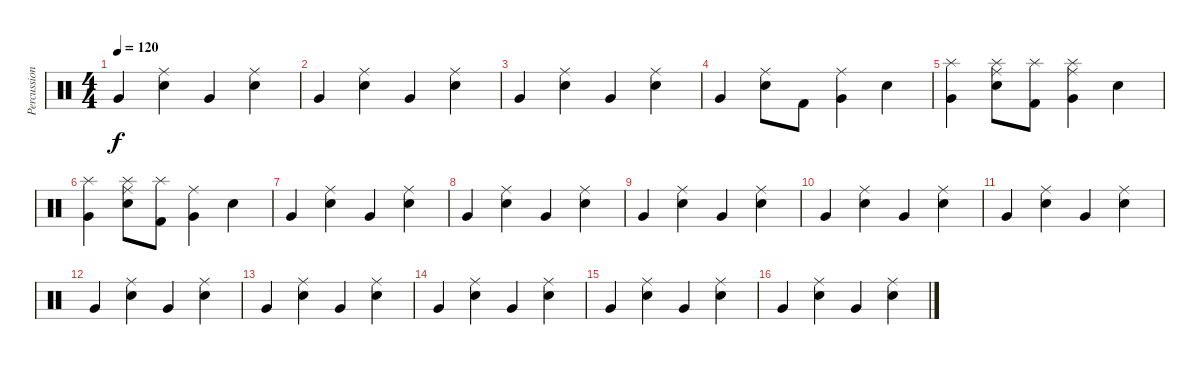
\track ("Percussion" "Percussion") {instrument percussion}
\staff {score}
\articulation defaults
\ts (4 4)
\tempo 120
\clef neutral
\ks c "Very Low Tom (hit)".4{dy f}
("Ride (middle)" "Snare (hit) 2").4 "Very Low Tom (hit)".4 ("Ride (middle)" "Snare (hit) 2").4 |
"Very Low Tom (hit)".4 ("Ride (middle)" "Snare (hit) 2").4 "Very Low Tom (hit)".4 ("Ride (middle)" "Snare (hit) 2").4 |
"Very Low Tom (hit)".4 ("Ride (middle)" "Snare (hit) 2").4 "Very Low Tom (hit)".4 ("Ride (middle)" "Snare (hit) 2").4 |
"Very Low Tom (hit)".4 ("Ride (middle)" "Snare (hit) 2").8 "Kick (hit) 2".8 ("Ride (middle)" "Very Low Tom (hit)").4 "Snare (hit) 2".4 |
("Splash (hit)" "Very Low Tom (hit)").4 ("Splash (hit)" "Ride (middle)" "Snare (hit) 2").8 ("Splash (hit)" "Kick (hit) 2").8 ("Splash (hit)" "Ride (middle)" "Very Low Tom (hit)").4 "Snare (hit) 2".4 |
("Splash (hit)" "Very Low Tom (hit)").4 ("Splash (hit)" "Ride (middle)" "Snare (hit) 2").8 ("Splash (hit)" "Kick (hit) 2").8 ("Ride (middle)" "Very Low Tom (hit)").4 "Snare (hit) 2".4 |
"Very Low Tom (hit)".4 ("Ride (middle)" "Snare (hit) 2").4 "Very Low Tom (hit)".4 ("Ride (middle)" "Snare (hit) 2").4 |
"Very Low Tom (hit)".4 ("Ride (middle)" "Snare (hit) 2").4 "Very Low Tom (hit)".4 ("Ride (middle)" "Snare (hit) 2").4 |
"Very Low Tom (hit)".4 ("Ride (middle)" "Snare (hit) 2").4 "Very Low Tom (hit)".4 ("Ride (middle)" "Snare (hit) 2").4 |
"Very Low Tom (hit)".4 ("Ride (middle)" "Snare (hit) 2").4 "Very Low Tom (hit)".4 ("Ride (middle)" "Snare (hit) 2").4 |
"Very Low Tom (hit)".4 ("Ride (middle)" "Snare (hit) 2").4 "Very Low Tom (hit)".4 ("Ride (middle)" "Snare (hit) 2").4 |
"Very Low Tom (hit)".4 ("Ride (middle)" "Snare (hit) 2").4 "Very Low Tom (hit)".4 ("Ride (middle)" "Snare (hit) 2").4 |
"Very Low Tom (hit)".4 ("Ride (middle)" "Snare (hit) 2").4 "Very Low Tom (hit)".4 ("Ride (middle)" "Snare (hit) 2").4 |
"Very Low Tom (hit)".4 ("Ride (middle)" "Snare (hit) 2").4 "Very Low Tom (hit)".4 ("Ride (middle)" "Snare (hit) 2").4 |
"Very Low Tom (hit)".4 ("Ride (middle)" "Snare (hit) 2").4 "Very Low Tom (hit)".4 ("Ride (middle)" "Snare (hit) 2").4 |
"Very Low Tom (hit)".4 ("Ride (middle)" "Snare (hit) 2").4 "Very Low Tom (hit)".4 ("Ride (middle)" "Snare (hit) 2").4
